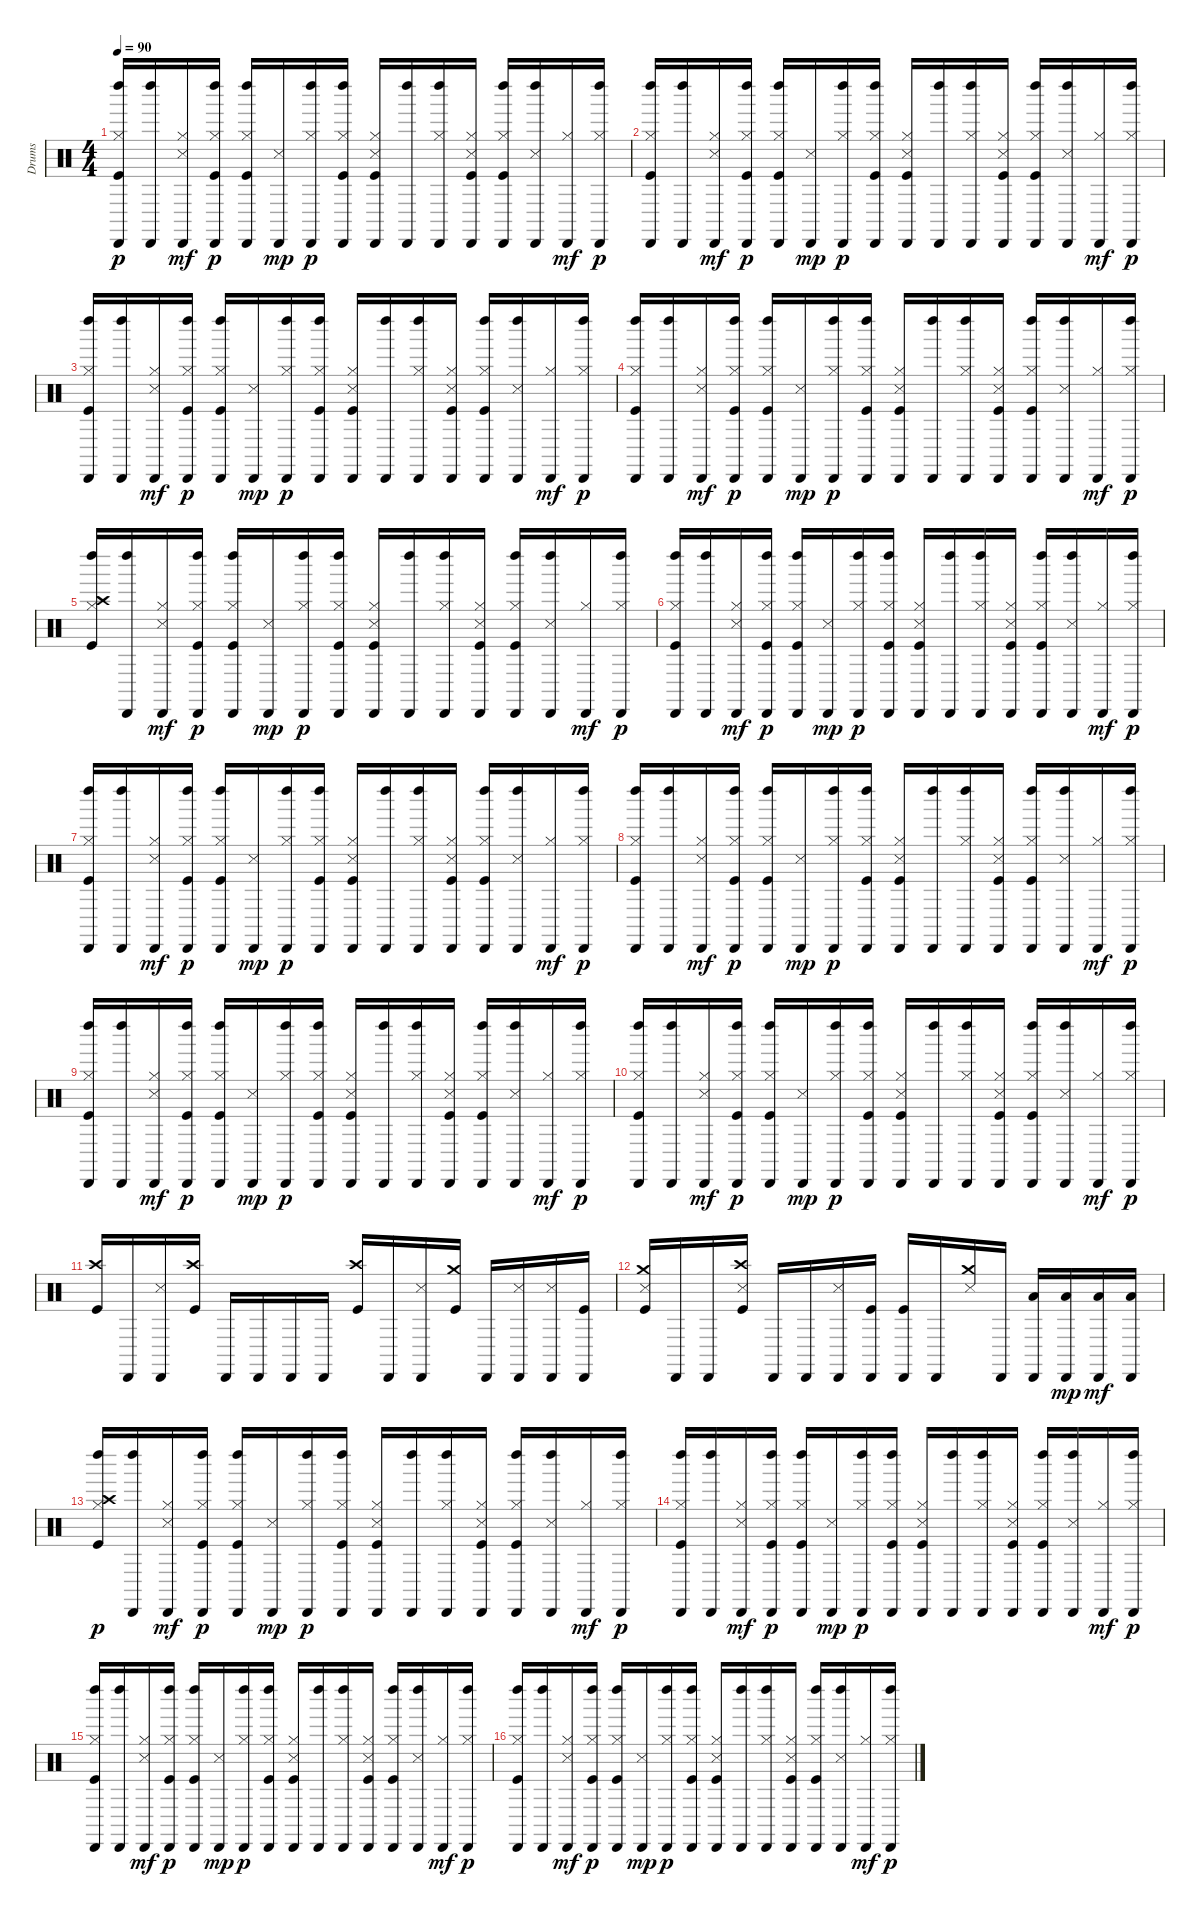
\track ("Drums" "Drums") {instrument percussion}
\staff {score}
\articulation defaults
\ts (4 4)
\tempo 90
\clef neutral
\ks c
("Cabasa (hit)" "Hi-Hat (closed)" "Left Maraca (hit)" "Kick (hit)").16{dy p} ("Cabasa (hit)" "Left Maraca (hit)").16 ("Cabasa (hit)" "Hi-Hat (closed)" "Snare (side stick) 3").16{dy mf} ("Cabasa (hit)" "Hi-Hat (closed)" "Left Maraca (hit)" "Kick (hit)").16{dy p} ("Cabasa (hit)" "Hi-Hat (closed)" "Left Maraca (hit)" "Kick (hit)").16 ("Cabasa (hit)" "Snare (side stick) 3").16{dy mp} ("Cabasa (hit)" "Hi-Hat (closed)" "Left Maraca (hit)").16{dy p} ("Cabasa (hit)" "Hi-Hat (closed)" "Left Maraca (hit)" "Kick (hit)").16 ("Cabasa (hit)" "Hi-Hat (closed)" "Snare (side stick) 3" "Kick (hit)").16 ("Cabasa (hit)" "Left Maraca (hit)").16 ("Cabasa (hit)" "Hi-Hat (closed)" "Left Maraca (hit)").16 ("Cabasa (hit)" "Hi-Hat (closed)" "Snare (side stick) 3" "Kick (hit)").16 ("Cabasa (hit)" "Hi-Hat (closed)" "Left Maraca (hit)" "Kick (hit)").16 ("Cabasa (hit)" "Snare (side stick) 3" "Left Maraca (hit)").16 ("Cabasa (hit)" "Hi-Hat (closed)").16{dy mf} ("Cabasa (hit)" "Hi-Hat (closed)" "Left Maraca (hit)").16{dy p} |
("Cabasa (hit)" "Hi-Hat (closed)" "Left Maraca (hit)" "Kick (hit)").16 ("Cabasa (hit)" "Left Maraca (hit)").16 ("Cabasa (hit)" "Hi-Hat (closed)" "Snare (side stick) 3").16{dy mf} ("Cabasa (hit)" "Hi-Hat (closed)" "Left Maraca (hit)" "Kick (hit)").16{dy p} ("Cabasa (hit)" "Hi-Hat (closed)" "Left Maraca (hit)" "Kick (hit)").16 ("Cabasa (hit)" "Snare (side stick) 3").16{dy mp} ("Cabasa (hit)" "Hi-Hat (closed)" "Left Maraca (hit)").16{dy p} ("Cabasa (hit)" "Hi-Hat (closed)" "Left Maraca (hit)" "Kick (hit)").16 ("Cabasa (hit)" "Hi-Hat (closed)" "Snare (side stick) 3" "Kick (hit)").16 ("Cabasa (hit)" "Left Maraca (hit)").16 ("Cabasa (hit)" "Hi-Hat (closed)" "Left Maraca (hit)").16 ("Cabasa (hit)" "Hi-Hat (closed)" "Snare (side stick) 3" "Kick (hit)").16 ("Cabasa (hit)" "Hi-Hat (closed)" "Left Maraca (hit)" "Kick (hit)").16 ("Cabasa (hit)" "Snare (side stick) 3" "Left Maraca (hit)").16 ("Cabasa (hit)" "Hi-Hat (closed)").16{dy mf} ("Cabasa (hit)" "Hi-Hat (closed)" "Left Maraca (hit)").16{dy p} |
("Cabasa (hit)" "Hi-Hat (closed)" "Left Maraca (hit)" "Kick (hit)").16 ("Cabasa (hit)" "Left Maraca (hit)").16 ("Cabasa (hit)" "Hi-Hat (closed)" "Snare (side stick) 3").16{dy mf} ("Cabasa (hit)" "Hi-Hat (closed)" "Left Maraca (hit)" "Kick (hit)").16{dy p} ("Cabasa (hit)" "Hi-Hat (closed)" "Left Maraca (hit)" "Kick (hit)").16 ("Cabasa (hit)" "Snare (side stick) 3").16{dy mp} ("Cabasa (hit)" "Hi-Hat (closed)" "Left Maraca (hit)").16{dy p} ("Cabasa (hit)" "Hi-Hat (closed)" "Left Maraca (hit)" "Kick (hit)").16 ("Cabasa (hit)" "Hi-Hat (closed)" "Snare (side stick) 3" "Kick (hit)").16 ("Cabasa (hit)" "Left Maraca (hit)").16 ("Cabasa (hit)" "Hi-Hat (closed)" "Left Maraca (hit)").16 ("Cabasa (hit)" "Hi-Hat (closed)" "Snare (side stick) 3" "Kick (hit)").16 ("Cabasa (hit)" "Hi-Hat (closed)" "Left Maraca (hit)" "Kick (hit)").16 ("Cabasa (hit)" "Snare (side stick) 3" "Left Maraca (hit)").16 ("Cabasa (hit)" "Hi-Hat (closed)").16{dy mf} ("Cabasa (hit)" "Hi-Hat (closed)" "Left Maraca (hit)").16{dy p} |
("Cabasa (hit)" "Hi-Hat (closed)" "Left Maraca (hit)" "Kick (hit)").16 ("Cabasa (hit)" "Left Maraca (hit)").16 ("Cabasa (hit)" "Hi-Hat (closed)" "Snare (side stick) 3").16{dy mf} ("Cabasa (hit)" "Hi-Hat (closed)" "Left Maraca (hit)" "Kick (hit)").16{dy p} ("Cabasa (hit)" "Hi-Hat (closed)" "Left Maraca (hit)" "Kick (hit)").16 ("Cabasa (hit)" "Snare (side stick) 3").16{dy mp} ("Cabasa (hit)" "Hi-Hat (closed)" "Left Maraca (hit)").16{dy p} ("Cabasa (hit)" "Hi-Hat (closed)" "Left Maraca (hit)" "Kick (hit)").16 ("Cabasa (hit)" "Hi-Hat (closed)" "Snare (side stick) 3" "Kick (hit)").16 ("Cabasa (hit)" "Left Maraca (hit)").16 ("Cabasa (hit)" "Hi-Hat (closed)" "Left Maraca (hit)").16 ("Cabasa (hit)" "Hi-Hat (closed)" "Snare (side stick) 3" "Kick (hit)").16 ("Cabasa (hit)" "Hi-Hat (closed)" "Left Maraca (hit)" "Kick (hit)").16 ("Cabasa (hit)" "Snare (side stick) 3" "Left Maraca (hit)").16 ("Cabasa (hit)" "Hi-Hat (closed)").16{dy mf} ("Cabasa (hit)" "Hi-Hat (closed)" "Left Maraca (hit)").16{dy p} |
("Crash high (hit)" "Hi-Hat (closed)" "Left Maraca (hit)" "Kick (hit)").16 ("Cabasa (hit)" "Left Maraca (hit)").16 ("Cabasa (hit)" "Hi-Hat (closed)" "Snare (side stick) 3").16{dy mf} ("Cabasa (hit)" "Hi-Hat (closed)" "Left Maraca (hit)" "Kick (hit)").16{dy p} ("Cabasa (hit)" "Hi-Hat (closed)" "Left Maraca (hit)" "Kick (hit)").16 ("Cabasa (hit)" "Snare (side stick) 3").16{dy mp} ("Cabasa (hit)" "Hi-Hat (closed)" "Left Maraca (hit)").16{dy p} ("Cabasa (hit)" "Hi-Hat (closed)" "Left Maraca (hit)" "Kick (hit)").16 ("Cabasa (hit)" "Hi-Hat (closed)" "Snare (side stick) 3" "Kick (hit)").16 ("Cabasa (hit)" "Left Maraca (hit)").16 ("Cabasa (hit)" "Hi-Hat (closed)" "Left Maraca (hit)").16 ("Cabasa (hit)" "Hi-Hat (closed)" "Snare (side stick) 3" "Kick (hit)").16 ("Cabasa (hit)" "Hi-Hat (closed)" "Left Maraca (hit)" "Kick (hit)").16 ("Cabasa (hit)" "Snare (side stick) 3" "Left Maraca (hit)").16 ("Cabasa (hit)" "Hi-Hat (closed)").16{dy mf} ("Cabasa (hit)" "Hi-Hat (closed)" "Left Maraca (hit)").16{dy p} |
("Cabasa (hit)" "Hi-Hat (closed)" "Left Maraca (hit)" "Kick (hit)").16 ("Cabasa (hit)" "Left Maraca (hit)").16 ("Cabasa (hit)" "Hi-Hat (closed)" "Snare (side stick) 3").16{dy mf} ("Cabasa (hit)" "Hi-Hat (closed)" "Left Maraca (hit)" "Kick (hit)").16{dy p} ("Cabasa (hit)" "Hi-Hat (closed)" "Left Maraca (hit)" "Kick (hit)").16 ("Cabasa (hit)" "Snare (side stick) 3").16{dy mp} ("Cabasa (hit)" "Hi-Hat (closed)" "Left Maraca (hit)").16{dy p} ("Cabasa (hit)" "Hi-Hat (closed)" "Left Maraca (hit)" "Kick (hit)").16 ("Cabasa (hit)" "Hi-Hat (closed)" "Snare (side stick) 3" "Kick (hit)").16 ("Cabasa (hit)" "Left Maraca (hit)").16 ("Cabasa (hit)" "Hi-Hat (closed)" "Left Maraca (hit)").16 ("Cabasa (hit)" "Hi-Hat (closed)" "Snare (side stick) 3" "Kick (hit)").16 ("Cabasa (hit)" "Hi-Hat (closed)" "Left Maraca (hit)" "Kick (hit)").16 ("Cabasa (hit)" "Snare (side stick) 3" "Left Maraca (hit)").16 ("Cabasa (hit)" "Hi-Hat (closed)").16{dy mf} ("Cabasa (hit)" "Hi-Hat (closed)" "Left Maraca (hit)").16{dy p} |
("Cabasa (hit)" "Hi-Hat (closed)" "Left Maraca (hit)" "Kick (hit)").16 ("Cabasa (hit)" "Left Maraca (hit)").16 ("Cabasa (hit)" "Hi-Hat (closed)" "Snare (side stick) 3").16{dy mf} ("Cabasa (hit)" "Hi-Hat (closed)" "Left Maraca (hit)" "Kick (hit)").16{dy p} ("Cabasa (hit)" "Hi-Hat (closed)" "Left Maraca (hit)" "Kick (hit)").16 ("Cabasa (hit)" "Snare (side stick) 3").16{dy mp} ("Cabasa (hit)" "Hi-Hat (closed)" "Left Maraca (hit)").16{dy p} ("Cabasa (hit)" "Hi-Hat (closed)" "Left Maraca (hit)" "Kick (hit)").16 ("Cabasa (hit)" "Hi-Hat (closed)" "Snare (side stick) 3" "Kick (hit)").16 ("Cabasa (hit)" "Left Maraca (hit)").16 ("Cabasa (hit)" "Hi-Hat (closed)" "Left Maraca (hit)").16 ("Cabasa (hit)" "Hi-Hat (closed)" "Snare (side stick) 3" "Kick (hit)").16 ("Cabasa (hit)" "Hi-Hat (closed)" "Left Maraca (hit)" "Kick (hit)").16 ("Cabasa (hit)" "Snare (side stick) 3" "Left Maraca (hit)").16 ("Cabasa (hit)" "Hi-Hat (closed)").16{dy mf} ("Cabasa (hit)" "Hi-Hat (closed)" "Left Maraca (hit)").16{dy p} |
("Cabasa (hit)" "Hi-Hat (closed)" "Left Maraca (hit)" "Kick (hit)").16 ("Cabasa (hit)" "Left Maraca (hit)").16 ("Cabasa (hit)" "Hi-Hat (closed)" "Snare (side stick) 3").16{dy mf} ("Cabasa (hit)" "Hi-Hat (closed)" "Left Maraca (hit)" "Kick (hit)").16{dy p} ("Cabasa (hit)" "Hi-Hat (closed)" "Left Maraca (hit)" "Kick (hit)").16 ("Cabasa (hit)" "Snare (side stick) 3").16{dy mp} ("Cabasa (hit)" "Hi-Hat (closed)" "Left Maraca (hit)").16{dy p} ("Cabasa (hit)" "Hi-Hat (closed)" "Left Maraca (hit)" "Kick (hit)").16 ("Cabasa (hit)" "Hi-Hat (closed)" "Snare (side stick) 3" "Kick (hit)").16 ("Cabasa (hit)" "Left Maraca (hit)").16 ("Cabasa (hit)" "Hi-Hat (closed)" "Left Maraca (hit)").16 ("Cabasa (hit)" "Hi-Hat (closed)" "Snare (side stick) 3" "Kick (hit)").16 ("Cabasa (hit)" "Hi-Hat (closed)" "Left Maraca (hit)" "Kick (hit)").16 ("Cabasa (hit)" "Snare (side stick) 3" "Left Maraca (hit)").16 ("Cabasa (hit)" "Hi-Hat (closed)").16{dy mf} ("Cabasa (hit)" "Hi-Hat (closed)" "Left Maraca (hit)").16{dy p} |
("Cabasa (hit)" "Hi-Hat (closed)" "Left Maraca (hit)" "Kick (hit)").16 ("Cabasa (hit)" "Left Maraca (hit)").16 ("Cabasa (hit)" "Hi-Hat (closed)" "Snare (side stick) 3").16{dy mf} ("Cabasa (hit)" "Hi-Hat (closed)" "Left Maraca (hit)" "Kick (hit)").16{dy p} ("Cabasa (hit)" "Hi-Hat (closed)" "Left Maraca (hit)" "Kick (hit)").16 ("Cabasa (hit)" "Snare (side stick) 3").16{dy mp} ("Cabasa (hit)" "Hi-Hat (closed)" "Left Maraca (hit)").16{dy p} ("Cabasa (hit)" "Hi-Hat (closed)" "Left Maraca (hit)" "Kick (hit)").16 ("Cabasa (hit)" "Hi-Hat (closed)" "Snare (side stick) 3" "Kick (hit)").16 ("Cabasa (hit)" "Left Maraca (hit)").16 ("Cabasa (hit)" "Hi-Hat (closed)" "Left Maraca (hit)").16 ("Cabasa (hit)" "Hi-Hat (closed)" "Snare (side stick) 3" "Kick (hit)").16 ("Cabasa (hit)" "Hi-Hat (closed)" "Left Maraca (hit)" "Kick (hit)").16 ("Cabasa (hit)" "Snare (side stick) 3" "Left Maraca (hit)").16 ("Cabasa (hit)" "Hi-Hat (closed)").16{dy mf} ("Cabasa (hit)" "Hi-Hat (closed)" "Left Maraca (hit)").16{dy p} |
("Cabasa (hit)" "Hi-Hat (closed)" "Left Maraca (hit)" "Kick (hit)").16 ("Cabasa (hit)" "Left Maraca (hit)").16 ("Cabasa (hit)" "Hi-Hat (closed)" "Snare (side stick) 3").16{dy mf} ("Cabasa (hit)" "Hi-Hat (closed)" "Left Maraca (hit)" "Kick (hit)").16{dy p} ("Cabasa (hit)" "Hi-Hat (closed)" "Left Maraca (hit)" "Kick (hit)").16 ("Cabasa (hit)" "Snare (side stick) 3").16{dy mp} ("Cabasa (hit)" "Hi-Hat (closed)" "Left Maraca (hit)").16{dy p} ("Cabasa (hit)" "Hi-Hat (closed)" "Left Maraca (hit)" "Kick (hit)").16 ("Cabasa (hit)" "Hi-Hat (closed)" "Snare (side stick) 3" "Kick (hit)").16 ("Cabasa (hit)" "Left Maraca (hit)").16 ("Cabasa (hit)" "Hi-Hat (closed)" "Left Maraca (hit)").16 ("Cabasa (hit)" "Hi-Hat (closed)" "Snare (side stick) 3" "Kick (hit)").16 ("Cabasa (hit)" "Hi-Hat (closed)" "Left Maraca (hit)" "Kick (hit)").16 ("Cabasa (hit)" "Snare (side stick) 3" "Left Maraca (hit)").16 ("Cabasa (hit)" "Hi-Hat (closed)").16{dy mf} ("Cabasa (hit)" "Hi-Hat (closed)" "Left Maraca (hit)").16{dy p} |
("Crash high (hit)" "Kick (hit)").16 "Cabasa (hit)".16 ("Cabasa (hit)" "Snare (side stick) 3").16 ("Crash high (hit)" "Kick (hit)").16 "Cabasa (hit)".16 "Cabasa (hit)".16 "Cabasa (hit)".16 "Cabasa (hit)".16 ("Crash high (hit)" "Kick (hit)").16 "Cabasa (hit)".16 ("Cabasa (hit)" "Snare (side stick) 3").16 ("Crash medium (hit)" "Kick (hit)").16 "Cabasa (hit)".16 ("Cabasa (hit)" "Snare (side stick) 3").16 ("Cabasa (hit)" "Snare (side stick) 3").16 ("Cabasa (hit)" "Kick (hit)").16 |
("Crash medium (hit)" "Snare (side stick) 3" "Kick (hit)").16 "Cabasa (hit)".16 "Cabasa (hit)".16 ("Crash high (hit)" "Snare (side stick) 3" "Kick (hit)").16 "Cabasa (hit)".16 "Cabasa (hit)".16 ("Cabasa (hit)" "Snare (side stick) 3").16 ("Cabasa (hit)" "Kick (hit)").16 ("Cabasa (hit)" "Kick (hit)").16 "Cabasa (hit)".16 ("Crash medium (hit)" "Snare (side stick) 3").16 "Cabasa (hit)".16 ("Cabasa (hit)" "Low Floor Tom (hit)").16 ("Cabasa (hit)" "Low Floor Tom (hit)").16{dy mp} ("Cabasa (hit)" "Low Floor Tom (hit)").16{dy mf} ("Cabasa (hit)" "Low Floor Tom (hit)").16 |
("Crash high (hit)" "Hi-Hat (closed)" "Left Maraca (hit)" "Kick (hit)").16{dy p} ("Cabasa (hit)" "Left Maraca (hit)").16 ("Cabasa (hit)" "Hi-Hat (closed)" "Snare (side stick) 3").16{dy mf} ("Cabasa (hit)" "Hi-Hat (closed)" "Left Maraca (hit)" "Kick (hit)").16{dy p} ("Cabasa (hit)" "Hi-Hat (closed)" "Left Maraca (hit)" "Kick (hit)").16 ("Cabasa (hit)" "Snare (side stick) 3").16{dy mp} ("Cabasa (hit)" "Hi-Hat (closed)" "Left Maraca (hit)").16{dy p} ("Cabasa (hit)" "Hi-Hat (closed)" "Left Maraca (hit)" "Kick (hit)").16 ("Cabasa (hit)" "Hi-Hat (closed)" "Snare (side stick) 3" "Kick (hit)").16 ("Cabasa (hit)" "Left Maraca (hit)").16 ("Cabasa (hit)" "Hi-Hat (closed)" "Left Maraca (hit)").16 ("Cabasa (hit)" "Hi-Hat (closed)" "Snare (side stick) 3" "Kick (hit)").16 ("Cabasa (hit)" "Hi-Hat (closed)" "Left Maraca (hit)" "Kick (hit)").16 ("Cabasa (hit)" "Snare (side stick) 3" "Left Maraca (hit)").16 ("Cabasa (hit)" "Hi-Hat (closed)").16{dy mf} ("Cabasa (hit)" "Hi-Hat (closed)" "Left Maraca (hit)").16{dy p} |
("Cabasa (hit)" "Hi-Hat (closed)" "Left Maraca (hit)" "Kick (hit)").16 ("Cabasa (hit)" "Left Maraca (hit)").16 ("Cabasa (hit)" "Hi-Hat (closed)" "Snare (side stick) 3").16{dy mf} ("Cabasa (hit)" "Hi-Hat (closed)" "Left Maraca (hit)" "Kick (hit)").16{dy p} ("Cabasa (hit)" "Hi-Hat (closed)" "Left Maraca (hit)" "Kick (hit)").16 ("Cabasa (hit)" "Snare (side stick) 3").16{dy mp} ("Cabasa (hit)" "Hi-Hat (closed)" "Left Maraca (hit)").16{dy p} ("Cabasa (hit)" "Hi-Hat (closed)" "Left Maraca (hit)" "Kick (hit)").16 ("Cabasa (hit)" "Hi-Hat (closed)" "Snare (side stick) 3" "Kick (hit)").16 ("Cabasa (hit)" "Left Maraca (hit)").16 ("Cabasa (hit)" "Hi-Hat (closed)" "Left Maraca (hit)").16 ("Cabasa (hit)" "Hi-Hat (closed)" "Snare (side stick) 3" "Kick (hit)").16 ("Cabasa (hit)" "Hi-Hat (closed)" "Left Maraca (hit)" "Kick (hit)").16 ("Cabasa (hit)" "Snare (side stick) 3" "Left Maraca (hit)").16 ("Cabasa (hit)" "Hi-Hat (closed)").16{dy mf} ("Cabasa (hit)" "Hi-Hat (closed)" "Left Maraca (hit)").16{dy p} |
("Cabasa (hit)" "Hi-Hat (closed)" "Left Maraca (hit)" "Kick (hit)").16 ("Cabasa (hit)" "Left Maraca (hit)").16 ("Cabasa (hit)" "Hi-Hat (closed)" "Snare (side stick) 3").16{dy mf} ("Cabasa (hit)" "Hi-Hat (closed)" "Left Maraca (hit)" "Kick (hit)").16{dy p} ("Cabasa (hit)" "Hi-Hat (closed)" "Left Maraca (hit)" "Kick (hit)").16 ("Cabasa (hit)" "Snare (side stick) 3").16{dy mp} ("Cabasa (hit)" "Hi-Hat (closed)" "Left Maraca (hit)").16{dy p} ("Cabasa (hit)" "Hi-Hat (closed)" "Left Maraca (hit)" "Kick (hit)").16 ("Cabasa (hit)" "Hi-Hat (closed)" "Snare (side stick) 3" "Kick (hit)").16 ("Cabasa (hit)" "Left Maraca (hit)").16 ("Cabasa (hit)" "Hi-Hat (closed)" "Left Maraca (hit)").16 ("Cabasa (hit)" "Hi-Hat (closed)" "Snare (side stick) 3" "Kick (hit)").16 ("Cabasa (hit)" "Hi-Hat (closed)" "Left Maraca (hit)" "Kick (hit)").16 ("Cabasa (hit)" "Snare (side stick) 3" "Left Maraca (hit)").16 ("Cabasa (hit)" "Hi-Hat (closed)").16{dy mf} ("Cabasa (hit)" "Hi-Hat (closed)" "Left Maraca (hit)").16{dy p} |
("Cabasa (hit)" "Hi-Hat (closed)" "Left Maraca (hit)" "Kick (hit)").16 ("Cabasa (hit)" "Left Maraca (hit)").16 ("Cabasa (hit)" "Hi-Hat (closed)" "Snare (side stick) 3").16{dy mf} ("Cabasa (hit)" "Hi-Hat (closed)" "Left Maraca (hit)" "Kick (hit)").16{dy p} ("Cabasa (hit)" "Hi-Hat (closed)" "Left Maraca (hit)" "Kick (hit)").16 ("Cabasa (hit)" "Snare (side stick) 3").16{dy mp} ("Cabasa (hit)" "Hi-Hat (closed)" "Left Maraca (hit)").16{dy p} ("Cabasa (hit)" "Hi-Hat (closed)" "Left Maraca (hit)" "Kick (hit)").16 ("Cabasa (hit)" "Hi-Hat (closed)" "Snare (side stick) 3" "Kick (hit)").16 ("Cabasa (hit)" "Left Maraca (hit)").16 ("Cabasa (hit)" "Hi-Hat (closed)" "Left Maraca (hit)").16 ("Cabasa (hit)" "Hi-Hat (closed)" "Snare (side stick) 3" "Kick (hit)").16 ("Cabasa (hit)" "Hi-Hat (closed)" "Left Maraca (hit)" "Kick (hit)").16 ("Cabasa (hit)" "Snare (side stick) 3" "Left Maraca (hit)").16 ("Cabasa (hit)" "Hi-Hat (closed)").16{dy mf} ("Cabasa (hit)" "Hi-Hat (closed)" "Left Maraca (hit)").16{dy p}
